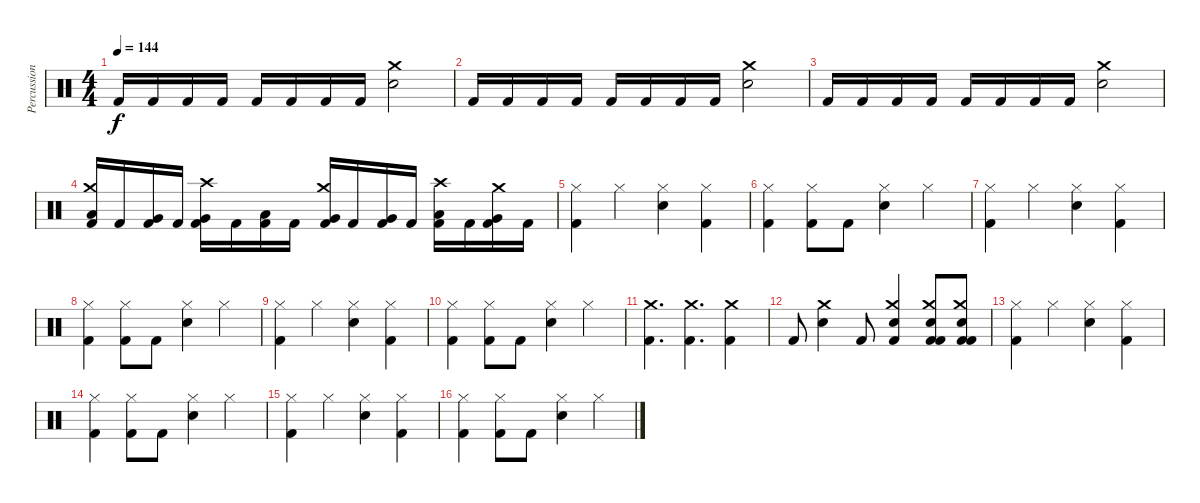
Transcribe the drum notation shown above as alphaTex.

\track ("Percussion" "Percussion") {instrument percussion}
\staff {score}
\articulation defaults
\ts (4 4)
\tempo 144
\clef neutral
\ks c "Kick (hit) 2".16{dy f} "Kick (hit) 2".16 "Kick (hit) 2".16 "Kick (hit) 2".16 "Kick (hit) 2".16 "Kick (hit) 2".16 "Kick (hit) 2".16 "Kick (hit) 2".16
("Crash medium (hit)" "Electric Snare (hit)").2 |
"Kick (hit) 2".16 "Kick (hit) 2".16 "Kick (hit) 2".16 "Kick (hit) 2".16 "Kick (hit) 2".16 "Kick (hit) 2".16 "Kick (hit) 2".16 "Kick (hit) 2".16 ("Crash medium (hit)" "Electric Snare (hit)").2 |
"Kick (hit) 2".16 "Kick (hit) 2".16 "Kick (hit) 2".16 "Kick (hit) 2".16 "Kick (hit) 2".16 "Kick (hit) 2".16 "Kick (hit) 2".16 "Kick (hit) 2".16 ("Crash medium (hit)" "Electric Snare (hit)").2 |
("Crash medium (hit)" "Low Tom (hit)" "Kick (hit) 2").16 "Kick (hit) 2".16 ("Very Low Tom (hit)" "Kick (hit) 2").16 "Kick (hit) 2".16 ("Crash high (hit)" "Very Low Tom (hit)" "Kick (hit) 2").16 "Kick (hit) 2".16 ("Low Tom (hit)" "Kick (hit) 2").16 "Kick (hit) 2".16 ("Crash medium (hit)" "Very Low Tom (hit)" "Kick (hit) 2").16 "Kick (hit) 2".16 ("Very Low Tom (hit)" "Kick (hit) 2").16 "Kick (hit) 2".16 ("Crash high (hit)" "Low Tom (hit)" "Kick (hit) 2").16 "Kick (hit) 2".16 ("Crash medium (hit)" "Very Low Tom (hit)" "Kick (hit) 2").16 "Kick (hit) 2".16 |
("Hi-Hat (closed)" "Kick (hit) 2").4 "Hi-Hat (closed)".4 ("Hi-Hat (closed)" "Electric Snare (hit)").4 ("Hi-Hat (closed)" "Kick (hit) 2").4 |
("Hi-Hat (closed)" "Kick (hit) 2").4 ("Hi-Hat (closed)" "Kick (hit) 2").8 "Kick (hit) 2".8 ("Hi-Hat (closed)" "Electric Snare (hit)").4 "Hi-Hat (closed)".4 |
("Hi-Hat (closed)" "Kick (hit) 2").4 "Hi-Hat (closed)".4 ("Hi-Hat (closed)" "Electric Snare (hit)").4 ("Hi-Hat (closed)" "Kick (hit) 2").4 |
("Hi-Hat (closed)" "Kick (hit) 2").4 ("Hi-Hat (closed)" "Kick (hit) 2").8 "Kick (hit) 2".8 ("Hi-Hat (closed)" "Electric Snare (hit)").4 "Hi-Hat (closed)".4 |
("Hi-Hat (closed)" "Kick (hit) 2").4 "Hi-Hat (closed)".4 ("Hi-Hat (closed)" "Electric Snare (hit)").4 ("Hi-Hat (closed)" "Kick (hit) 2").4 |
("Hi-Hat (closed)" "Kick (hit) 2").4 ("Hi-Hat (closed)" "Kick (hit) 2").8 "Kick (hit) 2".8 ("Hi-Hat (closed)" "Electric Snare (hit)").4 "Hi-Hat (closed)".4 |
("Crash medium (hit)" "Kick (hit) 2").4{d} ("Crash medium (hit)" "Kick (hit) 2").4{d} ("Crash medium (hit)" "Kick (hit) 2").4 |
"Kick (hit) 2".8 ("Electric Snare (hit)" "Crash medium (hit)").4 "Kick (hit) 2".8 ("Electric Snare (hit)" "Kick (hit) 2" "Crash medium (hit)").4 ("Electric Snare (hit)" "Kick (hit) 2" "Crash medium (hit)" "Kick (hit) 2").8 ("Electric Snare (hit)" "Kick (hit) 2" "Crash medium (hit)" "Kick (hit) 2").8 |
("Hi-Hat (closed)" "Kick (hit) 2").4 "Hi-Hat (closed)".4 ("Hi-Hat (closed)" "Electric Snare (hit)").4 ("Hi-Hat (closed)" "Kick (hit) 2").4 |
("Hi-Hat (closed)" "Kick (hit) 2").4 ("Hi-Hat (closed)" "Kick (hit) 2").8 "Kick (hit) 2".8 ("Hi-Hat (closed)" "Electric Snare (hit)").4 "Hi-Hat (closed)".4 |
("Hi-Hat (closed)" "Kick (hit) 2").4 "Hi-Hat (closed)".4 ("Hi-Hat (closed)" "Electric Snare (hit)").4 ("Hi-Hat (closed)" "Kick (hit) 2").4 |
("Hi-Hat (closed)" "Kick (hit) 2").4 ("Hi-Hat (closed)" "Kick (hit) 2").8 "Kick (hit) 2".8 ("Hi-Hat (closed)" "Electric Snare (hit)").4 "Hi-Hat (closed)".4
